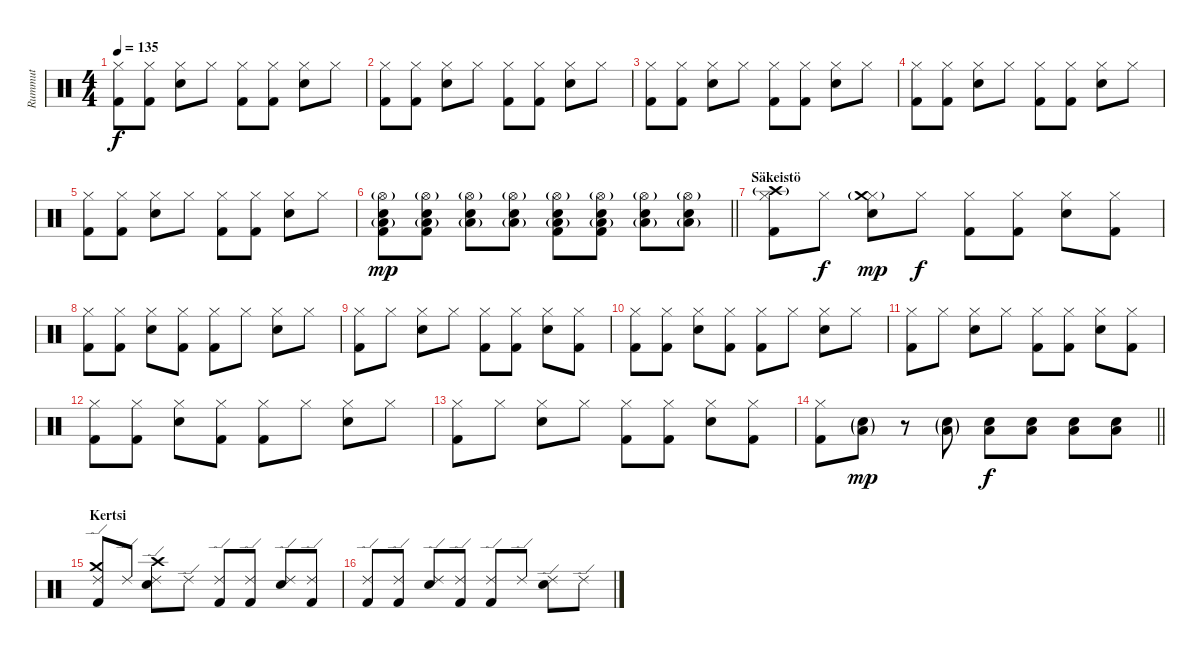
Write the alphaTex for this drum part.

\track ("Rummut" "Rummut") {instrument percussion}
\staff {score}
\articulation defaults
\ts (4 4)
\tempo 135
\clef neutral
\ks c
("Hi-Hat (closed)" "Kick (hit) 2").8{dy f} ("Hi-Hat (closed)" "Kick (hit) 2").8 ("Hi-Hat (closed)" "Snare (hit) 2").8 "Hi-Hat (closed)".8 ("Hi-Hat (closed)" "Kick (hit) 2").8 ("Hi-Hat (closed)" "Kick (hit) 2").8 ("Hi-Hat (closed)" "Snare (hit) 2").8 "Hi-Hat (closed)".8 |
("Hi-Hat (closed)" "Kick (hit) 2").8 ("Hi-Hat (closed)" "Kick (hit) 2").8 ("Hi-Hat (closed)" "Snare (hit) 2").8 "Hi-Hat (closed)".8 ("Hi-Hat (closed)" "Kick (hit) 2").8 ("Hi-Hat (closed)" "Kick (hit) 2").8 ("Hi-Hat (closed)" "Snare (hit) 2").8 "Hi-Hat (closed)".8 |
("Hi-Hat (closed)" "Kick (hit) 2").8 ("Hi-Hat (closed)" "Kick (hit) 2").8 ("Hi-Hat (closed)" "Snare (hit) 2").8 "Hi-Hat (closed)".8 ("Hi-Hat (closed)" "Kick (hit) 2").8 ("Hi-Hat (closed)" "Kick (hit) 2").8 ("Hi-Hat (closed)" "Snare (hit) 2").8 "Hi-Hat (closed)".8 |
("Hi-Hat (closed)" "Kick (hit) 2").8 ("Hi-Hat (closed)" "Kick (hit) 2").8 ("Hi-Hat (closed)" "Snare (hit) 2").8 "Hi-Hat (closed)".8 ("Hi-Hat (closed)" "Kick (hit) 2").8 ("Hi-Hat (closed)" "Kick (hit) 2").8 ("Hi-Hat (closed)" "Snare (hit) 2").8 "Hi-Hat (closed)".8 |
("Hi-Hat (closed)" "Kick (hit) 2").8 ("Hi-Hat (closed)" "Kick (hit) 2").8 ("Hi-Hat (closed)" "Snare (hit) 2").8 "Hi-Hat (closed)".8 ("Hi-Hat (closed)" "Kick (hit) 2").8 ("Hi-Hat (closed)" "Kick (hit) 2").8 ("Hi-Hat (closed)" "Snare (hit) 2").8 "Hi-Hat (closed)".8 |
\barLineRight lightlight
("Low Tom (hit)"{g} "Snare (hit) 2" "Hi-Hat (open)"{g} "Kick (hit) 2").8{dy mp} ("Low Tom (hit)"{g} "Snare (hit) 2" "Hi-Hat (open)"{g} "Kick (hit) 2").8 ("Low Tom (hit)"{g} "Snare (hit) 2" "Hi-Hat (open)"{g}).8 ("Low Tom (hit)"{g} "Snare (hit) 2" "Hi-Hat (open)"{g}).8 ("Low Tom (hit)"{g} "Snare (hit) 2" "Hi-Hat (open)"{g} "Kick (hit) 2").8 ("Low Tom (hit)"{g} "Snare (hit) 2" "Hi-Hat (open)"{g} "Kick (hit) 2").8 ("Low Tom (hit)"{g} "Snare (hit) 2" "Hi-Hat (open)"{g}).8 ("Low Tom (hit)"{g} "Snare (hit) 2" "Hi-Hat (open)"{g}).8 |
\section ("" "Säkeistö")
("Hi-Hat (closed)" "Kick (hit) 2" "Crash high (hit)"{g}).8 "Hi-Hat (closed)".8{dy f} ("Hi-Hat (closed)" "Snare (hit) 2" "Crash medium (hit)"{g}).8{dy mp} "Hi-Hat (closed)".8{dy f} ("Hi-Hat (closed)" "Kick (hit) 2").8 ("Hi-Hat (closed)" "Kick (hit) 2").8 ("Hi-Hat (closed)" "Snare (hit) 2").8 ("Hi-Hat (closed)" "Kick (hit) 2").8 |
("Hi-Hat (closed)" "Kick (hit) 2").8 ("Hi-Hat (closed)" "Kick (hit) 2").8 ("Hi-Hat (closed)" "Snare (hit) 2").8 ("Hi-Hat (closed)" "Kick (hit) 2").8 ("Hi-Hat (closed)" "Kick (hit) 2").8 "Hi-Hat (closed)".8 ("Hi-Hat (closed)" "Snare (hit) 2").8 "Hi-Hat (closed)".8 |
("Hi-Hat (closed)" "Kick (hit) 2").8 "Hi-Hat (closed)".8 ("Hi-Hat (closed)" "Snare (hit) 2").8 "Hi-Hat (closed)".8 ("Hi-Hat (closed)" "Kick (hit) 2").8 ("Hi-Hat (closed)" "Kick (hit) 2").8 ("Hi-Hat (closed)" "Snare (hit) 2").8 ("Hi-Hat (closed)" "Kick (hit) 2").8 |
("Hi-Hat (closed)" "Kick (hit) 2").8 ("Hi-Hat (closed)" "Kick (hit) 2").8 ("Hi-Hat (closed)" "Snare (hit) 2").8 ("Hi-Hat (closed)" "Kick (hit) 2").8 ("Hi-Hat (closed)" "Kick (hit) 2").8 "Hi-Hat (closed)".8 ("Hi-Hat (closed)" "Snare (hit) 2").8 "Hi-Hat (closed)".8 |
("Hi-Hat (closed)" "Kick (hit) 2").8 "Hi-Hat (closed)".8 ("Hi-Hat (closed)" "Snare (hit) 2").8 "Hi-Hat (closed)".8 ("Hi-Hat (closed)" "Kick (hit) 2").8 ("Hi-Hat (closed)" "Kick (hit) 2").8 ("Hi-Hat (closed)" "Snare (hit) 2").8 ("Hi-Hat (closed)" "Kick (hit) 2").8 |
("Hi-Hat (closed)" "Kick (hit) 2").8 ("Hi-Hat (closed)" "Kick (hit) 2").8 ("Hi-Hat (closed)" "Snare (hit) 2").8 ("Hi-Hat (closed)" "Kick (hit) 2").8 ("Hi-Hat (closed)" "Kick (hit) 2").8 "Hi-Hat (closed)".8 ("Hi-Hat (closed)" "Snare (hit) 2").8 "Hi-Hat (closed)".8 |
("Hi-Hat (closed)" "Kick (hit) 2").8 "Hi-Hat (closed)".8 ("Hi-Hat (closed)" "Snare (hit) 2").8 "Hi-Hat (closed)".8 ("Hi-Hat (closed)" "Kick (hit) 2").8 ("Hi-Hat (closed)" "Kick (hit) 2").8 ("Hi-Hat (closed)" "Snare (hit) 2").8 ("Hi-Hat (closed)" "Kick (hit) 2").8 |
\barLineRight lightlight
("Hi-Hat (closed)" "Kick (hit) 2").8 ("Snare (hit) 2"{g} "Low Tom (hit)"{g}).8{dy mp} r.8 ("Snare (hit) 2"{g} "Low Tom (hit)"{g}).8 ("Snare (hit) 2" "Low Tom (hit)").8{dy f} ("Snare (hit) 2" "Low Tom (hit)").8 ("Snare (hit) 2" "Low Tom (hit)").8 ("Snare (hit) 2" "Low Tom (hit)").8 |
\section ("" "Kertsi")
("Crash medium (hit)" "Ride (edge) 2" "Kick (hit) 2").8 "Ride (edge) 2".8 ("Crash high (hit)" "Ride (edge) 2" "Snare (hit) 2").8 "Ride (edge) 2".8 ("Ride (edge) 2" "Kick (hit) 2").8 ("Ride (edge) 2" "Kick (hit) 2").8 ("Ride (edge) 2" "Snare (hit) 2").8 ("Ride (edge) 2" "Kick (hit) 2").8 |
("Ride (edge) 2" "Kick (hit) 2").8 ("Ride (edge) 2" "Kick (hit) 2").8 ("Ride (edge) 2" "Snare (hit) 2").8 ("Ride (edge) 2" "Kick (hit) 2").8 ("Ride (edge) 2" "Kick (hit) 2").8 "Ride (edge) 2".8 ("Ride (edge) 2" "Snare (hit) 2").8 "Ride (edge) 2".8
